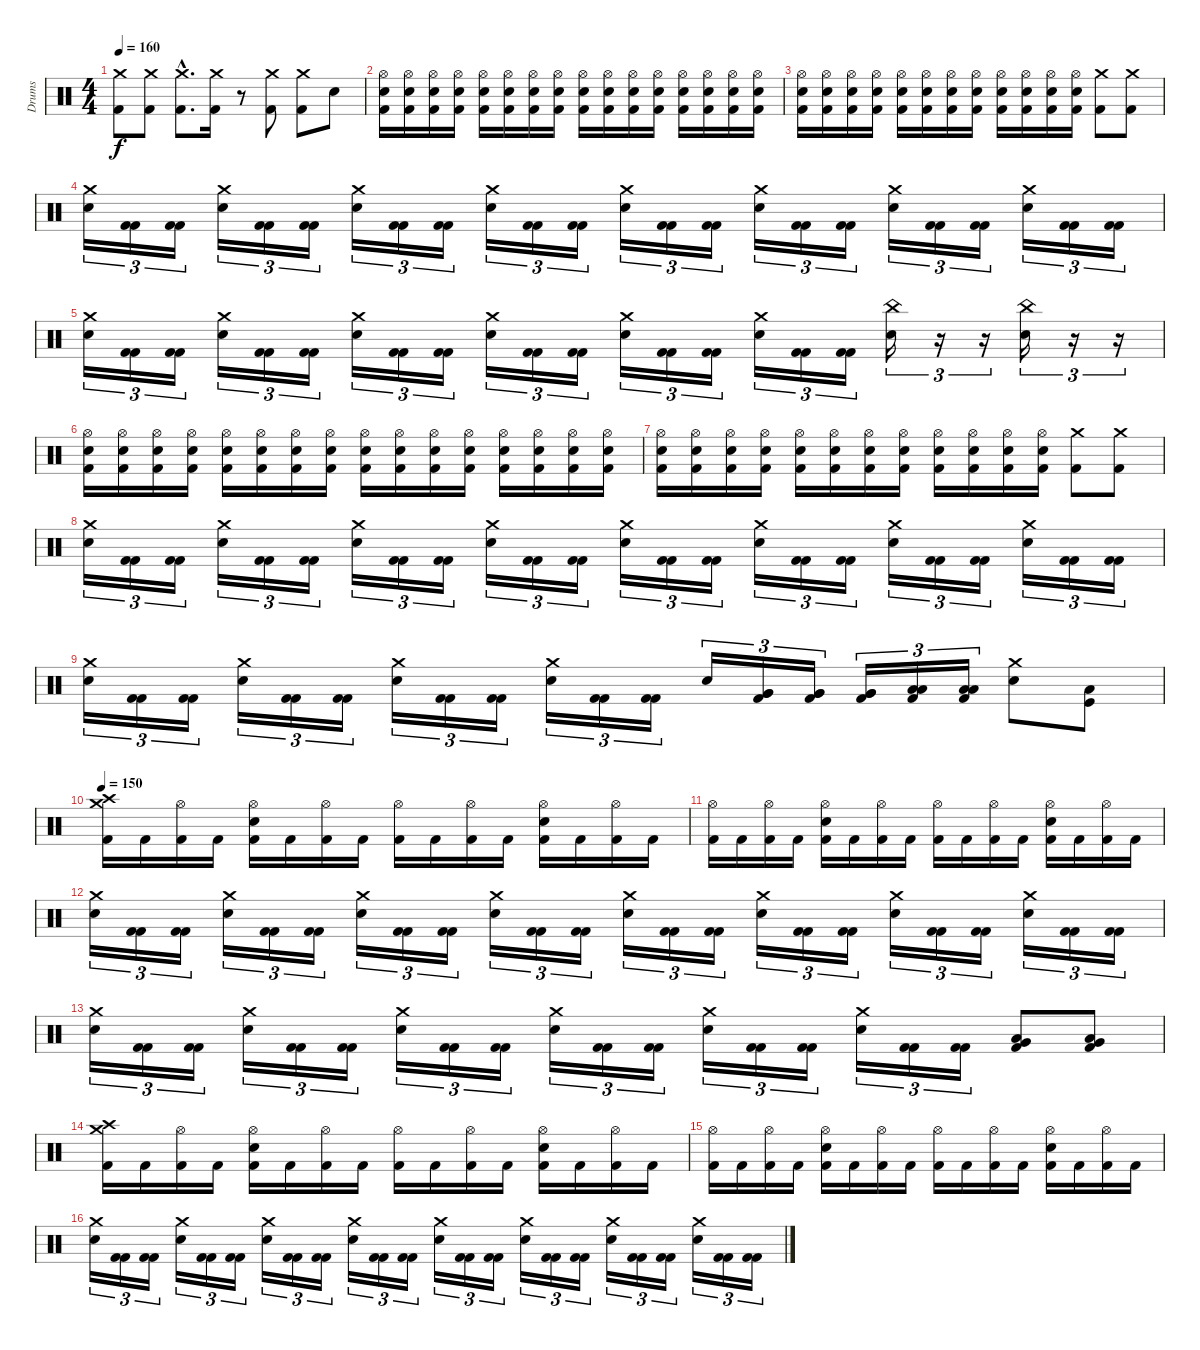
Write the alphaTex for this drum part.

\track ("Drums" "Drums") {instrument percussion}
\staff {score}
\articulation defaults
\ts (4 4)
\tempo 160
\clef neutral
\ks c
("Crash medium (hit)" "Kick (hit) 2").8{dy f} ("Crash medium (hit)" "Kick (hit) 2").8 ("Crash medium (hit)"{hac} "Kick (hit) 2"{hac}).8{d} ("Crash medium (hit)" "Kick (hit) 2").16 r.8 ("Crash medium (hit)" "Kick (hit) 2").8 ("Crash medium (hit)" "Kick (hit) 2").8 "Electric Snare (hit)".8 |
("Hi-Hat (open)" "Electric Snare (hit)" "Kick (hit) 2").16 ("Hi-Hat (open)" "Electric Snare (hit)" "Kick (hit) 2").16 ("Hi-Hat (open)" "Electric Snare (hit)" "Kick (hit) 2").16 ("Hi-Hat (open)" "Electric Snare (hit)" "Kick (hit) 2").16 ("Hi-Hat (open)" "Electric Snare (hit)" "Kick (hit) 2").16 ("Hi-Hat (open)" "Electric Snare (hit)" "Kick (hit) 2").16 ("Hi-Hat (open)" "Electric Snare (hit)" "Kick (hit) 2").16 ("Hi-Hat (open)" "Electric Snare (hit)" "Kick (hit) 2").16 ("Hi-Hat (open)" "Electric Snare (hit)" "Kick (hit) 2").16 ("Hi-Hat (open)" "Electric Snare (hit)" "Kick (hit) 2").16 ("Hi-Hat (open)" "Electric Snare (hit)" "Kick (hit) 2").16 ("Hi-Hat (open)" "Electric Snare (hit)" "Kick (hit) 2").16 ("Hi-Hat (open)" "Electric Snare (hit)" "Kick (hit) 2").16 ("Hi-Hat (open)" "Electric Snare (hit)" "Kick (hit) 2").16 ("Hi-Hat (open)" "Electric Snare (hit)" "Kick (hit) 2").16 ("Hi-Hat (open)" "Electric Snare (hit)" "Kick (hit) 2").16 |
("Hi-Hat (open)" "Electric Snare (hit)" "Kick (hit) 2").16 ("Hi-Hat (open)" "Electric Snare (hit)" "Kick (hit) 2").16 ("Hi-Hat (open)" "Electric Snare (hit)" "Kick (hit) 2").16 ("Hi-Hat (open)" "Electric Snare (hit)" "Kick (hit) 2").16 ("Hi-Hat (open)" "Electric Snare (hit)" "Kick (hit) 2").16 ("Hi-Hat (open)" "Electric Snare (hit)" "Kick (hit) 2").16 ("Hi-Hat (open)" "Electric Snare (hit)" "Kick (hit) 2").16 ("Hi-Hat (open)" "Electric Snare (hit)" "Kick (hit) 2").16 ("Hi-Hat (open)" "Electric Snare (hit)" "Kick (hit) 2").16 ("Hi-Hat (open)" "Electric Snare (hit)" "Kick (hit) 2").16 ("Hi-Hat (open)" "Electric Snare (hit)" "Kick (hit) 2").16 ("Hi-Hat (open)" "Electric Snare (hit)" "Kick (hit) 2").16 ("Crash medium (hit)" "Kick (hit) 2").8 ("Crash medium (hit)" "Kick (hit) 2").8 |
("Crash medium (hit)" "Electric Snare (hit)").16{tu (3 2)} ("Kick (hit) 2" "Kick (hit) 2").16{tu (3 2)} ("Kick (hit) 2" "Kick (hit) 2").16{tu (3 2)} ("Crash medium (hit)" "Electric Snare (hit)").16{tu (3 2)} ("Kick (hit) 2" "Kick (hit) 2").16{tu (3 2)} ("Kick (hit) 2" "Kick (hit) 2").16{tu (3 2)} ("Crash medium (hit)" "Electric Snare (hit)").16{tu (3 2)} ("Kick (hit) 2" "Kick (hit) 2").16{tu (3 2)} ("Kick (hit) 2" "Kick (hit) 2").16{tu (3 2)} ("Crash medium (hit)" "Electric Snare (hit)").16{tu (3 2)} ("Kick (hit) 2" "Kick (hit) 2").16{tu (3 2)} ("Kick (hit) 2" "Kick (hit) 2").16{tu (3 2)} ("Crash medium (hit)" "Electric Snare (hit)").16{tu (3 2)} ("Kick (hit) 2" "Kick (hit) 2").16{tu (3 2)} ("Kick (hit) 2" "Kick (hit) 2").16{tu (3 2)} ("Crash medium (hit)" "Electric Snare (hit)").16{tu (3 2)} ("Kick (hit) 2" "Kick (hit) 2").16{tu (3 2)} ("Kick (hit) 2" "Kick (hit) 2").16{tu (3 2)} ("Crash medium (hit)" "Electric Snare (hit)").16{tu (3 2)} ("Kick (hit) 2" "Kick (hit) 2").16{tu (3 2)} ("Kick (hit) 2" "Kick (hit) 2").16{tu (3 2)} ("Crash medium (hit)" "Electric Snare (hit)").16{tu (3 2)} ("Kick (hit) 2" "Kick (hit) 2").16{tu (3 2)} ("Kick (hit) 2" "Kick (hit) 2").16{tu (3 2)} |
("Crash medium (hit)" "Electric Snare (hit)").16{tu (3 2)} ("Kick (hit) 2" "Kick (hit) 2").16{tu (3 2)} ("Kick (hit) 2" "Kick (hit) 2").16{tu (3 2)} ("Crash medium (hit)" "Electric Snare (hit)").16{tu (3 2)} ("Kick (hit) 2" "Kick (hit) 2").16{tu (3 2)} ("Kick (hit) 2" "Kick (hit) 2").16{tu (3 2)} ("Crash medium (hit)" "Electric Snare (hit)").16{tu (3 2)} ("Kick (hit) 2" "Kick (hit) 2").16{tu (3 2)} ("Kick (hit) 2" "Kick (hit) 2").16{tu (3 2)} ("Crash medium (hit)" "Electric Snare (hit)").16{tu (3 2)} ("Kick (hit) 2" "Kick (hit) 2").16{tu (3 2)} ("Kick (hit) 2" "Kick (hit) 2").16{tu (3 2)} ("Crash medium (hit)" "Electric Snare (hit)").16{tu (3 2)} ("Kick (hit) 2" "Kick (hit) 2").16{tu (3 2)} ("Kick (hit) 2" "Kick (hit) 2").16{tu (3 2)} ("Crash medium (hit)" "Electric Snare (hit)").16{tu (3 2)} ("Kick (hit) 2" "Kick (hit) 2").16{tu (3 2)} ("Kick (hit) 2" "Kick (hit) 2").16{tu (3 2)} ("China (hit)" "Electric Snare (hit)").16{tu (3 2)} r.16{tu (3 2)} r.16{tu (3 2)} ("China (hit)" "Electric Snare (hit)").16{tu (3 2)} r.16{tu (3 2)} r.16{tu (3 2)} |
("Hi-Hat (open)" "Electric Snare (hit)" "Kick (hit) 2").16 ("Hi-Hat (open)" "Electric Snare (hit)" "Kick (hit) 2").16 ("Hi-Hat (open)" "Electric Snare (hit)" "Kick (hit) 2").16 ("Hi-Hat (open)" "Electric Snare (hit)" "Kick (hit) 2").16 ("Hi-Hat (open)" "Electric Snare (hit)" "Kick (hit) 2").16 ("Hi-Hat (open)" "Electric Snare (hit)" "Kick (hit) 2").16 ("Hi-Hat (open)" "Electric Snare (hit)" "Kick (hit) 2").16 ("Hi-Hat (open)" "Electric Snare (hit)" "Kick (hit) 2").16 ("Hi-Hat (open)" "Electric Snare (hit)" "Kick (hit) 2").16 ("Hi-Hat (open)" "Electric Snare (hit)" "Kick (hit) 2").16 ("Hi-Hat (open)" "Electric Snare (hit)" "Kick (hit) 2").16 ("Hi-Hat (open)" "Electric Snare (hit)" "Kick (hit) 2").16 ("Hi-Hat (open)" "Electric Snare (hit)" "Kick (hit) 2").16 ("Hi-Hat (open)" "Electric Snare (hit)" "Kick (hit) 2").16 ("Hi-Hat (open)" "Electric Snare (hit)" "Kick (hit) 2").16 ("Hi-Hat (open)" "Electric Snare (hit)" "Kick (hit) 2").16 |
("Hi-Hat (open)" "Electric Snare (hit)" "Kick (hit) 2").16 ("Hi-Hat (open)" "Electric Snare (hit)" "Kick (hit) 2").16 ("Hi-Hat (open)" "Electric Snare (hit)" "Kick (hit) 2").16 ("Hi-Hat (open)" "Electric Snare (hit)" "Kick (hit) 2").16 ("Hi-Hat (open)" "Electric Snare (hit)" "Kick (hit) 2").16 ("Hi-Hat (open)" "Electric Snare (hit)" "Kick (hit) 2").16 ("Hi-Hat (open)" "Electric Snare (hit)" "Kick (hit) 2").16 ("Hi-Hat (open)" "Electric Snare (hit)" "Kick (hit) 2").16 ("Hi-Hat (open)" "Electric Snare (hit)" "Kick (hit) 2").16 ("Hi-Hat (open)" "Electric Snare (hit)" "Kick (hit) 2").16 ("Hi-Hat (open)" "Electric Snare (hit)" "Kick (hit) 2").16 ("Hi-Hat (open)" "Electric Snare (hit)" "Kick (hit) 2").16 ("Crash medium (hit)" "Kick (hit) 2").8 ("Crash medium (hit)" "Kick (hit) 2").8 |
("Crash medium (hit)" "Electric Snare (hit)").16{tu (3 2)} ("Kick (hit) 2" "Kick (hit) 2").16{tu (3 2)} ("Kick (hit) 2" "Kick (hit) 2").16{tu (3 2)} ("Crash medium (hit)" "Electric Snare (hit)").16{tu (3 2)} ("Kick (hit) 2" "Kick (hit) 2").16{tu (3 2)} ("Kick (hit) 2" "Kick (hit) 2").16{tu (3 2)} ("Crash medium (hit)" "Electric Snare (hit)").16{tu (3 2)} ("Kick (hit) 2" "Kick (hit) 2").16{tu (3 2)} ("Kick (hit) 2" "Kick (hit) 2").16{tu (3 2)} ("Crash medium (hit)" "Electric Snare (hit)").16{tu (3 2)} ("Kick (hit) 2" "Kick (hit) 2").16{tu (3 2)} ("Kick (hit) 2" "Kick (hit) 2").16{tu (3 2)} ("Crash medium (hit)" "Electric Snare (hit)").16{tu (3 2)} ("Kick (hit) 2" "Kick (hit) 2").16{tu (3 2)} ("Kick (hit) 2" "Kick (hit) 2").16{tu (3 2)} ("Crash medium (hit)" "Electric Snare (hit)").16{tu (3 2)} ("Kick (hit) 2" "Kick (hit) 2").16{tu (3 2)} ("Kick (hit) 2" "Kick (hit) 2").16{tu (3 2)} ("Crash medium (hit)" "Electric Snare (hit)").16{tu (3 2)} ("Kick (hit) 2" "Kick (hit) 2").16{tu (3 2)} ("Kick (hit) 2" "Kick (hit) 2").16{tu (3 2)} ("Crash medium (hit)" "Electric Snare (hit)").16{tu (3 2)} ("Kick (hit) 2" "Kick (hit) 2").16{tu (3 2)} ("Kick (hit) 2" "Kick (hit) 2").16{tu (3 2)} |
("Crash medium (hit)" "Electric Snare (hit)").16{tu (3 2)} ("Kick (hit) 2" "Kick (hit) 2").16{tu (3 2)} ("Kick (hit) 2" "Kick (hit) 2").16{tu (3 2)} ("Crash medium (hit)" "Electric Snare (hit)").16{tu (3 2)} ("Kick (hit) 2" "Kick (hit) 2").16{tu (3 2)} ("Kick (hit) 2" "Kick (hit) 2").16{tu (3 2)} ("Crash medium (hit)" "Electric Snare (hit)").16{tu (3 2)} ("Kick (hit) 2" "Kick (hit) 2").16{tu (3 2)} ("Kick (hit) 2" "Kick (hit) 2").16{tu (3 2)} ("Crash medium (hit)" "Electric Snare (hit)").16{tu (3 2)} ("Kick (hit) 2" "Kick (hit) 2").16{tu (3 2)} ("Kick (hit) 2" "Kick (hit) 2").16{tu (3 2)} "Electric Snare (hit)".16{tu (3 2)} ("Very Low Tom (hit)" "Very Low Tom (hit)" "Kick (hit) 2").16{tu (3 2)} ("Very Low Tom (hit)" "Very Low Tom (hit)" "Kick (hit) 2").16{tu (3 2)} ("Very Low Tom (hit)" "Very Low Tom (hit)" "Kick (hit) 2").16{tu (3 2)} ("Low Tom (hit)" "Low Tom (hit)" "Kick (hit) 2").16{tu (3 2)} ("Low Tom (hit)" "Low Tom (hit)" "Kick (hit) 2").16{tu (3 2)} ("Crash medium (hit)" "Electric Snare (hit)").8 ("Low Tom (hit)" "Kick (hit)").8 |
\tempo 150
("Crash high (hit)" "Crash medium (hit)" "Kick (hit) 2").16 "Kick (hit) 2".16 ("Hi-Hat (open)" "Kick (hit) 2").16 "Kick (hit) 2".16 ("Hi-Hat (open)" "Electric Snare (hit)" "Kick (hit) 2").16 "Kick (hit) 2".16 ("Hi-Hat (open)" "Kick (hit) 2").16 "Kick (hit) 2".16 ("Hi-Hat (open)" "Kick (hit) 2").16 "Kick (hit) 2".16 ("Hi-Hat (open)" "Kick (hit) 2").16 "Kick (hit) 2".16 ("Hi-Hat (open)" "Electric Snare (hit)" "Kick (hit) 2").16 "Kick (hit) 2".16 ("Hi-Hat (open)" "Kick (hit) 2").16 "Kick (hit) 2".16 |
("Hi-Hat (open)" "Kick (hit) 2").16 "Kick (hit) 2".16 ("Hi-Hat (open)" "Kick (hit) 2").16 "Kick (hit) 2".16 ("Hi-Hat (open)" "Electric Snare (hit)" "Kick (hit) 2").16 "Kick (hit) 2".16 ("Hi-Hat (open)" "Kick (hit) 2").16 "Kick (hit) 2".16 ("Hi-Hat (open)" "Kick (hit) 2").16 "Kick (hit) 2".16 ("Hi-Hat (open)" "Kick (hit) 2").16 "Kick (hit) 2".16 ("Hi-Hat (open)" "Electric Snare (hit)" "Kick (hit) 2").16 "Kick (hit) 2".16 ("Hi-Hat (open)" "Kick (hit) 2").16 "Kick (hit) 2".16 |
("Crash medium (hit)" "Electric Snare (hit)").16{tu (3 2)} ("Kick (hit) 2" "Kick (hit) 2").16{tu (3 2)} ("Kick (hit) 2" "Kick (hit) 2").16{tu (3 2)} ("Crash medium (hit)" "Electric Snare (hit)").16{tu (3 2)} ("Kick (hit) 2" "Kick (hit) 2").16{tu (3 2)} ("Kick (hit) 2" "Kick (hit) 2").16{tu (3 2)} ("Crash medium (hit)" "Electric Snare (hit)").16{tu (3 2)} ("Kick (hit) 2" "Kick (hit) 2").16{tu (3 2)} ("Kick (hit) 2" "Kick (hit) 2").16{tu (3 2)} ("Crash medium (hit)" "Electric Snare (hit)").16{tu (3 2)} ("Kick (hit) 2" "Kick (hit) 2").16{tu (3 2)} ("Kick (hit) 2" "Kick (hit) 2").16{tu (3 2)} ("Crash medium (hit)" "Electric Snare (hit)").16{tu (3 2)} ("Kick (hit) 2" "Kick (hit) 2").16{tu (3 2)} ("Kick (hit) 2" "Kick (hit) 2").16{tu (3 2)} ("Crash medium (hit)" "Electric Snare (hit)").16{tu (3 2)} ("Kick (hit) 2" "Kick (hit) 2").16{tu (3 2)} ("Kick (hit) 2" "Kick (hit) 2").16{tu (3 2)} ("Crash medium (hit)" "Electric Snare (hit)").16{tu (3 2)} ("Kick (hit) 2" "Kick (hit) 2").16{tu (3 2)} ("Kick (hit) 2" "Kick (hit) 2").16{tu (3 2)} ("Crash medium (hit)" "Electric Snare (hit)").16{tu (3 2)} ("Kick (hit) 2" "Kick (hit) 2").16{tu (3 2)} ("Kick (hit) 2" "Kick (hit) 2").16{tu (3 2)} |
("Crash medium (hit)" "Electric Snare (hit)").16{tu (3 2)} ("Kick (hit) 2" "Kick (hit) 2").16{tu (3 2)} ("Kick (hit) 2" "Kick (hit) 2").16{tu (3 2)} ("Crash medium (hit)" "Electric Snare (hit)").16{tu (3 2)} ("Kick (hit) 2" "Kick (hit) 2").16{tu (3 2)} ("Kick (hit) 2" "Kick (hit) 2").16{tu (3 2)} ("Crash medium (hit)" "Electric Snare (hit)").16{tu (3 2)} ("Kick (hit) 2" "Kick (hit) 2").16{tu (3 2)} ("Kick (hit) 2" "Kick (hit) 2").16{tu (3 2)} ("Crash medium (hit)" "Electric Snare (hit)").16{tu (3 2)} ("Kick (hit) 2" "Kick (hit) 2").16{tu (3 2)} ("Kick (hit) 2" "Kick (hit) 2").16{tu (3 2)} ("Crash medium (hit)" "Electric Snare (hit)").16{tu (3 2)} ("Kick (hit) 2" "Kick (hit) 2").16{tu (3 2)} ("Kick (hit) 2" "Kick (hit) 2").16{tu (3 2)} ("Crash medium (hit)" "Electric Snare (hit)").16{tu (3 2)} ("Kick (hit) 2" "Kick (hit) 2").16{tu (3 2)} ("Kick (hit) 2" "Kick (hit) 2").16{tu (3 2)} ("Very Low Tom (hit)" "Low Tom (hit)" "Kick (hit) 2").8 ("Very Low Tom (hit)" "Low Tom (hit)" "Kick (hit) 2").8 |
("Crash high (hit)" "Crash medium (hit)" "Kick (hit) 2").16 "Kick (hit) 2".16 ("Hi-Hat (open)" "Kick (hit) 2").16 "Kick (hit) 2".16 ("Hi-Hat (open)" "Electric Snare (hit)" "Kick (hit) 2").16 "Kick (hit) 2".16 ("Hi-Hat (open)" "Kick (hit) 2").16 "Kick (hit) 2".16 ("Hi-Hat (open)" "Kick (hit) 2").16 "Kick (hit) 2".16 ("Hi-Hat (open)" "Kick (hit) 2").16 "Kick (hit) 2".16 ("Hi-Hat (open)" "Electric Snare (hit)" "Kick (hit) 2").16 "Kick (hit) 2".16 ("Hi-Hat (open)" "Kick (hit) 2").16 "Kick (hit) 2".16 |
("Hi-Hat (open)" "Kick (hit) 2").16 "Kick (hit) 2".16 ("Hi-Hat (open)" "Kick (hit) 2").16 "Kick (hit) 2".16 ("Hi-Hat (open)" "Electric Snare (hit)" "Kick (hit) 2").16 "Kick (hit) 2".16 ("Hi-Hat (open)" "Kick (hit) 2").16 "Kick (hit) 2".16 ("Hi-Hat (open)" "Kick (hit) 2").16 "Kick (hit) 2".16 ("Hi-Hat (open)" "Kick (hit) 2").16 "Kick (hit) 2".16 ("Hi-Hat (open)" "Electric Snare (hit)" "Kick (hit) 2").16 "Kick (hit) 2".16 ("Hi-Hat (open)" "Kick (hit) 2").16 "Kick (hit) 2".16 |
("Crash medium (hit)" "Electric Snare (hit)").16{tu (3 2)} ("Kick (hit) 2" "Kick (hit) 2").16{tu (3 2)} ("Kick (hit) 2" "Kick (hit) 2").16{tu (3 2)} ("Crash medium (hit)" "Electric Snare (hit)").16{tu (3 2)} ("Kick (hit) 2" "Kick (hit) 2").16{tu (3 2)} ("Kick (hit) 2" "Kick (hit) 2").16{tu (3 2)} ("Crash medium (hit)" "Electric Snare (hit)").16{tu (3 2)} ("Kick (hit) 2" "Kick (hit) 2").16{tu (3 2)} ("Kick (hit) 2" "Kick (hit) 2").16{tu (3 2)} ("Crash medium (hit)" "Electric Snare (hit)").16{tu (3 2)} ("Kick (hit) 2" "Kick (hit) 2").16{tu (3 2)} ("Kick (hit) 2" "Kick (hit) 2").16{tu (3 2)} ("Crash medium (hit)" "Electric Snare (hit)").16{tu (3 2)} ("Kick (hit) 2" "Kick (hit) 2").16{tu (3 2)} ("Kick (hit) 2" "Kick (hit) 2").16{tu (3 2)} ("Crash medium (hit)" "Electric Snare (hit)").16{tu (3 2)} ("Kick (hit) 2" "Kick (hit) 2").16{tu (3 2)} ("Kick (hit) 2" "Kick (hit) 2").16{tu (3 2)} ("Crash medium (hit)" "Electric Snare (hit)").16{tu (3 2)} ("Kick (hit) 2" "Kick (hit) 2").16{tu (3 2)} ("Kick (hit) 2" "Kick (hit) 2").16{tu (3 2)} ("Crash medium (hit)" "Electric Snare (hit)").16{tu (3 2)} ("Kick (hit) 2" "Kick (hit) 2").16{tu (3 2)} ("Kick (hit) 2" "Kick (hit) 2").16{tu (3 2)}
